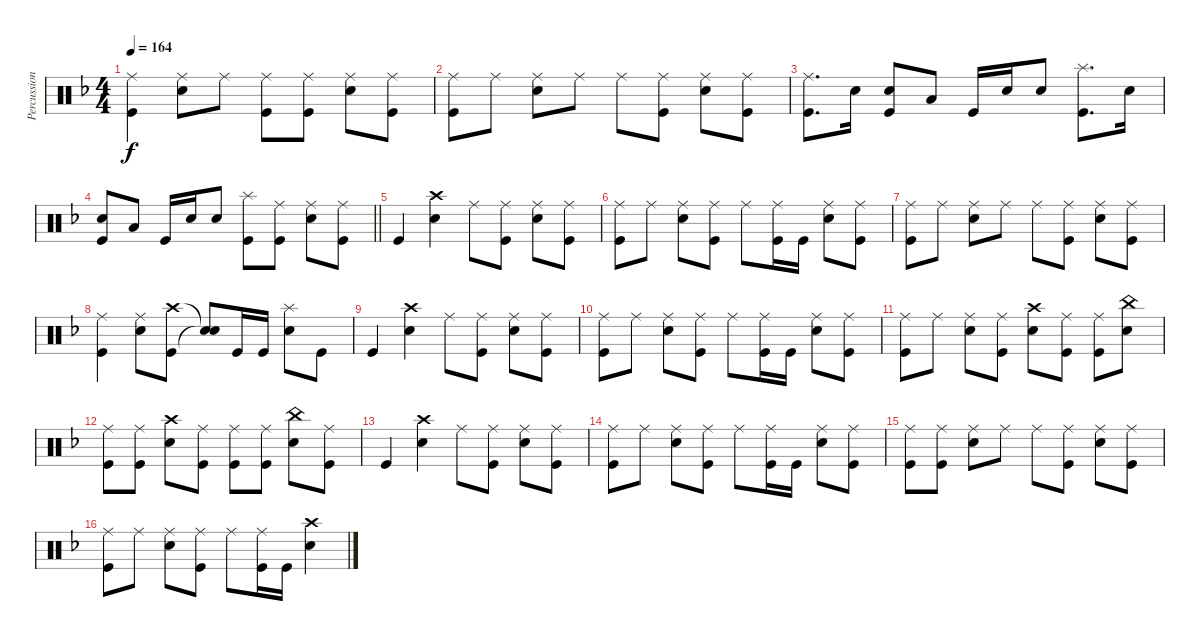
\track ("Percussions" "Percussion") {instrument percussion}
\staff {score}
\articulation defaults
\ts (4 4)
\tempo 164
\clef neutral
\ks dminor
("Ride (middle)" "Kick (hit)").4{dy f} ("Ride (middle)" "Electric Snare (hit)").8 "Ride (middle)".8 ("Ride (middle)" "Kick (hit)").8 ("Ride (middle)" "Kick (hit)").8 ("Ride (middle)" "Electric Snare (hit)").8 ("Ride (middle)" "Kick (hit)").8 |
("Ride (middle)" "Kick (hit)").8 "Ride (middle)".8 ("Ride (middle)" "Electric Snare (hit)").8 "Ride (middle)".8 "Ride (middle)".8 ("Ride (middle)" "Kick (hit)").8 ("Ride (middle)" "Electric Snare (hit)").8 ("Ride (middle)" "Kick (hit)").8 |
("Ride (middle)" "Kick (hit)").8{d} "Electric Snare (hit)".16 ("Electric Snare (hit)" "Kick (hit)").8 "Low Tom (hit)".8 "Kick (hit)".16 "Electric Snare (hit)".16 "Electric Snare (hit)".8 ("Splash (hit)" "Kick (hit)").8{d} "Electric Snare (hit)".16 |
\barLineRight lightlight
("Electric Snare (hit)" "Kick (hit)").8 "Low Tom (hit)".8 "Kick (hit)".16 "Electric Snare (hit)".16 "Electric Snare (hit)".8 ("Splash (hit)" "Kick (hit)").8 ("Ride (middle)" "Kick (hit)").8 ("Ride (middle)" "Electric Snare (hit)").8 ("Ride (middle)" "Kick (hit)").8 |
"Kick (hit)".4 ("Crash high (hit)" "Electric Snare (hit)").4 "Ride (middle)".8 ("Ride (middle)" "Kick (hit)").8 ("Ride (middle)" "Electric Snare (hit)").8 ("Ride (middle)" "Kick (hit)").8 |
("Ride (middle)" "Kick (hit)").8 "Ride (middle)".8 ("Ride (middle)" "Electric Snare (hit)").8 ("Ride (middle)" "Kick (hit)").8 "Ride (middle)".8 ("Ride (middle)" "Kick (hit)").16 "Kick (hit)".16 ("Ride (middle)" "Electric Snare (hit)").8 ("Ride (middle)" "Kick (hit)").8 |
("Ride (middle)" "Kick (hit)").8 "Ride (middle)".8 ("Ride (middle)" "Electric Snare (hit)").8 "Ride (middle)".8 "Ride (middle)".8 ("Ride (middle)" "Kick (hit)").8 ("Ride (middle)" "Electric Snare (hit)").8 ("Ride (middle)" "Kick (hit)").8 |
("Ride (middle)" "Kick (hit)").4 ("Ride (middle)" "Electric Snare (hit)").8 ("Crash high (hit)" "Kick (hit)").8 ("Snare (hit)"{t} "Snare (hit)"{t}).8 "Kick (hit)".16 "Kick (hit)".16 ("Splash (hit)" "Electric Snare (hit)").8 "Kick (hit)".8 |
"Kick (hit)".4 ("Crash high (hit)" "Electric Snare (hit)").4 "Ride (middle)".8 ("Ride (middle)" "Kick (hit)").8 ("Ride (middle)" "Electric Snare (hit)").8 ("Ride (middle)" "Kick (hit)").8 |
("Ride (middle)" "Kick (hit)").8 "Ride (middle)".8 ("Ride (middle)" "Electric Snare (hit)").8 ("Ride (middle)" "Kick (hit)").8 "Ride (middle)".8 ("Ride (middle)" "Kick (hit)").16 "Kick (hit)".16 ("Ride (middle)" "Electric Snare (hit)").8 ("Ride (middle)" "Kick (hit)").8 |
("Ride (middle)" "Kick (hit)").8 "Ride (middle)".8 ("Ride (middle)" "Electric Snare (hit)").8 ("Ride (middle)" "Kick (hit)").8 ("Crash high (hit)" "Electric Snare (hit)").8 ("Ride (middle)" "Kick (hit)").8 ("Ride (middle)" "Kick (hit)").8 ("China (hit)" "Electric Snare (hit)").8 |
("Ride (middle)" "Kick (hit)").8 ("Ride (middle)" "Kick (hit)").8 ("Crash high (hit)" "Electric Snare (hit)").8 ("Ride (middle)" "Kick (hit)").8 ("Ride (middle)" "Kick (hit)").8 ("Ride (middle)" "Kick (hit)").8 ("China (hit)" "Electric Snare (hit)").8 ("Ride (middle)" "Kick (hit)").8 |
"Kick (hit)".4 ("Crash high (hit)" "Electric Snare (hit)").4 "Ride (middle)".8 ("Ride (middle)" "Kick (hit)").8 ("Ride (middle)" "Electric Snare (hit)").8 ("Ride (middle)" "Kick (hit)").8 |
("Ride (middle)" "Kick (hit)").8 "Ride (middle)".8 ("Ride (middle)" "Electric Snare (hit)").8 ("Ride (middle)" "Kick (hit)").8 "Ride (middle)".8 ("Ride (middle)" "Kick (hit)").16 "Kick (hit)".16 ("Ride (middle)" "Electric Snare (hit)").8 ("Ride (middle)" "Kick (hit)").8 |
("Ride (middle)" "Kick (hit)").8 ("Ride (middle)" "Kick (hit)").8 ("Ride (middle)" "Electric Snare (hit)").8 "Ride (middle)".8 "Ride (middle)".8 ("Ride (middle)" "Kick (hit)").8 ("Ride (middle)" "Electric Snare (hit)").8 ("Ride (middle)" "Kick (hit)").8 |
("Ride (middle)" "Kick (hit)").8 "Ride (middle)".8 ("Ride (middle)" "Electric Snare (hit)").8 ("Ride (middle)" "Kick (hit)").8 "Ride (middle)".8 ("Ride (middle)" "Kick (hit)").16 "Kick (hit)".16 ("Crash high (hit)" "Electric Snare (hit)").4
